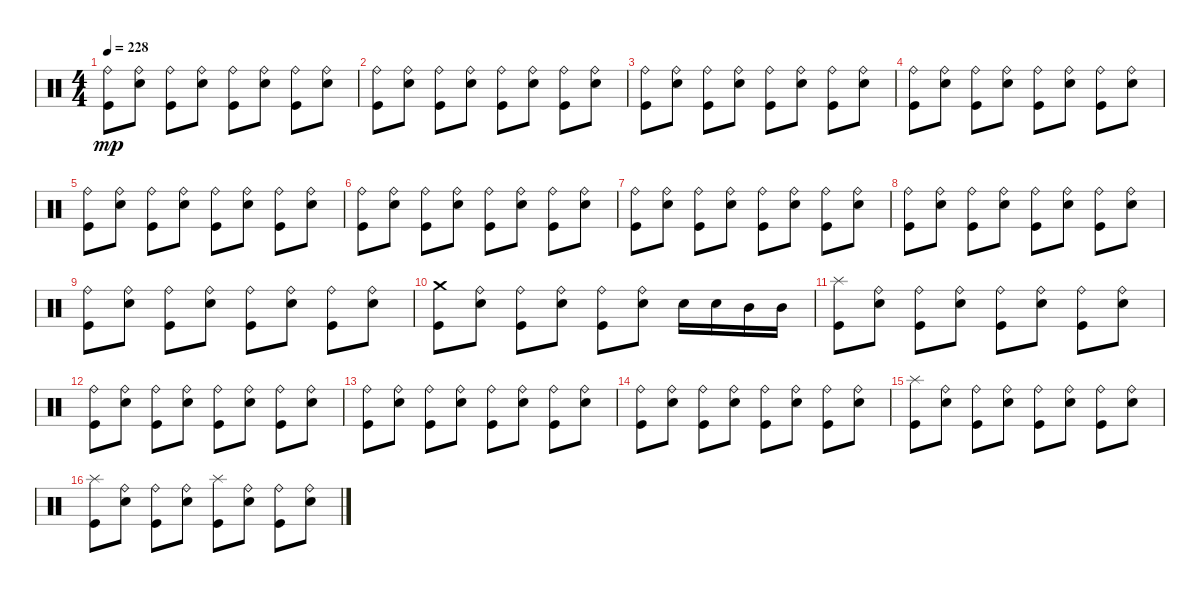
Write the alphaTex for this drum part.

\track "" {instrument percussion}
\staff {score}
\articulation defaults
\ts (4 4)
\tempo 228
\clef neutral
\ks c
("Kick (hit)" "Ride (bell)").8{dy mp} ("Electric Snare (hit)" "Ride (bell)").8 ("Kick (hit)" "Ride (bell)").8 ("Electric Snare (hit)" "Ride (bell)").8 ("Kick (hit)" "Ride (bell)").8 ("Electric Snare (hit)" "Ride (bell)").8 ("Kick (hit)" "Ride (bell)").8 ("Electric Snare (hit)" "Ride (bell)").8 |
("Kick (hit)" "Ride (bell)").8 ("Electric Snare (hit)" "Ride (bell)").8 ("Kick (hit)" "Ride (bell)").8 ("Electric Snare (hit)" "Ride (bell)").8 ("Kick (hit)" "Ride (bell)").8 ("Electric Snare (hit)" "Ride (bell)").8 ("Kick (hit)" "Ride (bell)").8 ("Electric Snare (hit)" "Ride (bell)").8 |
("Kick (hit)" "Ride (bell)").8 ("Electric Snare (hit)" "Ride (bell)").8 ("Kick (hit)" "Ride (bell)").8 ("Electric Snare (hit)" "Ride (bell)").8 ("Kick (hit)" "Ride (bell)").8 ("Electric Snare (hit)" "Ride (bell)").8 ("Kick (hit)" "Ride (bell)").8 ("Electric Snare (hit)" "Ride (bell)").8 |
("Kick (hit)" "Ride (bell)").8 ("Electric Snare (hit)" "Ride (bell)").8 ("Kick (hit)" "Ride (bell)").8 ("Electric Snare (hit)" "Ride (bell)").8 ("Kick (hit)" "Ride (bell)").8 ("Electric Snare (hit)" "Ride (bell)").8 ("Kick (hit)" "Ride (bell)").8 ("Electric Snare (hit)" "Ride (bell)").8 |
("Kick (hit)" "Ride (bell)").8 ("Electric Snare (hit)" "Ride (bell)").8 ("Kick (hit)" "Ride (bell)").8 ("Electric Snare (hit)" "Ride (bell)").8 ("Kick (hit)" "Ride (bell)").8 ("Electric Snare (hit)" "Ride (bell)").8 ("Kick (hit)" "Ride (bell)").8 ("Electric Snare (hit)" "Ride (bell)").8 |
("Kick (hit)" "Ride (bell)").8 ("Electric Snare (hit)" "Ride (bell)").8 ("Kick (hit)" "Ride (bell)").8 ("Electric Snare (hit)" "Ride (bell)").8 ("Kick (hit)" "Ride (bell)").8 ("Electric Snare (hit)" "Ride (bell)").8 ("Kick (hit)" "Ride (bell)").8 ("Electric Snare (hit)" "Ride (bell)").8 |
("Kick (hit)" "Ride (bell)").8 ("Electric Snare (hit)" "Ride (bell)").8 ("Kick (hit)" "Ride (bell)").8 ("Electric Snare (hit)" "Ride (bell)").8 ("Kick (hit)" "Ride (bell)").8 ("Electric Snare (hit)" "Ride (bell)").8 ("Kick (hit)" "Ride (bell)").8 ("Electric Snare (hit)" "Ride (bell)").8 |
("Kick (hit)" "Ride (bell)").8 ("Electric Snare (hit)" "Ride (bell)").8 ("Kick (hit)" "Ride (bell)").8 ("Electric Snare (hit)" "Ride (bell)").8 ("Kick (hit)" "Ride (bell)").8 ("Electric Snare (hit)" "Ride (bell)").8 ("Kick (hit)" "Ride (bell)").8 ("Electric Snare (hit)" "Ride (bell)").8 |
("Kick (hit)" "Ride (bell)").8 ("Electric Snare (hit)" "Ride (bell)").8 ("Kick (hit)" "Ride (bell)").8 ("Electric Snare (hit)" "Ride (bell)").8 ("Kick (hit)" "Ride (bell)").8 ("Electric Snare (hit)" "Ride (bell)").8 ("Kick (hit)" "Ride (bell)").8 ("Electric Snare (hit)" "Ride (bell)").8 |
("Kick (hit)" "Crash medium (hit)").8 ("Electric Snare (hit)" "Ride (bell)").8 ("Kick (hit)" "Ride (bell)").8 ("Electric Snare (hit)" "Ride (bell)").8 ("Kick (hit)" "Ride (bell)").8 ("Electric Snare (hit)" "Ride (bell)").8 "Electric Snare (hit)".16 "Electric Snare (hit)".16 "Mid Tom (hit)".16 "Mid Tom (hit)".16 |
("Kick (hit)" "Splash (hit)").8 ("Electric Snare (hit)" "Ride (bell)").8 ("Kick (hit)" "Ride (bell)").8 ("Electric Snare (hit)" "Ride (bell)").8 ("Kick (hit)" "Ride (bell)").8 ("Electric Snare (hit)" "Ride (bell)").8 ("Kick (hit)" "Ride (bell)").8 ("Electric Snare (hit)" "Ride (bell)").8 |
("Kick (hit)" "Ride (bell)").8 ("Electric Snare (hit)" "Ride (bell)").8 ("Kick (hit)" "Ride (bell)").8 ("Electric Snare (hit)" "Ride (bell)").8 ("Kick (hit)" "Ride (bell)").8 ("Electric Snare (hit)" "Ride (bell)").8 ("Kick (hit)" "Ride (bell)").8 ("Electric Snare (hit)" "Ride (bell)").8 |
("Kick (hit)" "Ride (bell)").8 ("Electric Snare (hit)" "Ride (bell)").8 ("Kick (hit)" "Ride (bell)").8 ("Electric Snare (hit)" "Ride (bell)").8 ("Kick (hit)" "Ride (bell)").8 ("Electric Snare (hit)" "Ride (bell)").8 ("Kick (hit)" "Ride (bell)").8 ("Electric Snare (hit)" "Ride (bell)").8 |
("Kick (hit)" "Ride (bell)").8 ("Electric Snare (hit)" "Ride (bell)").8 ("Kick (hit)" "Ride (bell)").8 ("Electric Snare (hit)" "Ride (bell)").8 ("Kick (hit)" "Ride (bell)").8 ("Electric Snare (hit)" "Ride (bell)").8 ("Kick (hit)" "Ride (bell)").8 ("Electric Snare (hit)" "Ride (bell)").8 |
("Kick (hit)" "Splash (hit)").8 ("Electric Snare (hit)" "Ride (bell)").8 ("Kick (hit)" "Ride (bell)").8 ("Electric Snare (hit)" "Ride (bell)").8 ("Kick (hit)" "Ride (bell)").8 ("Electric Snare (hit)" "Ride (bell)").8 ("Kick (hit)" "Ride (bell)").8 ("Electric Snare (hit)" "Ride (bell)").8 |
("Kick (hit)" "Splash (hit)").8 ("Electric Snare (hit)" "Ride (bell)").8 ("Kick (hit)" "Ride (bell)").8 ("Electric Snare (hit)" "Ride (bell)").8 ("Kick (hit)" "Splash (hit)").8 ("Electric Snare (hit)" "Ride (bell)").8 ("Kick (hit)" "Ride (bell)").8 ("Electric Snare (hit)" "Ride (bell)").8
